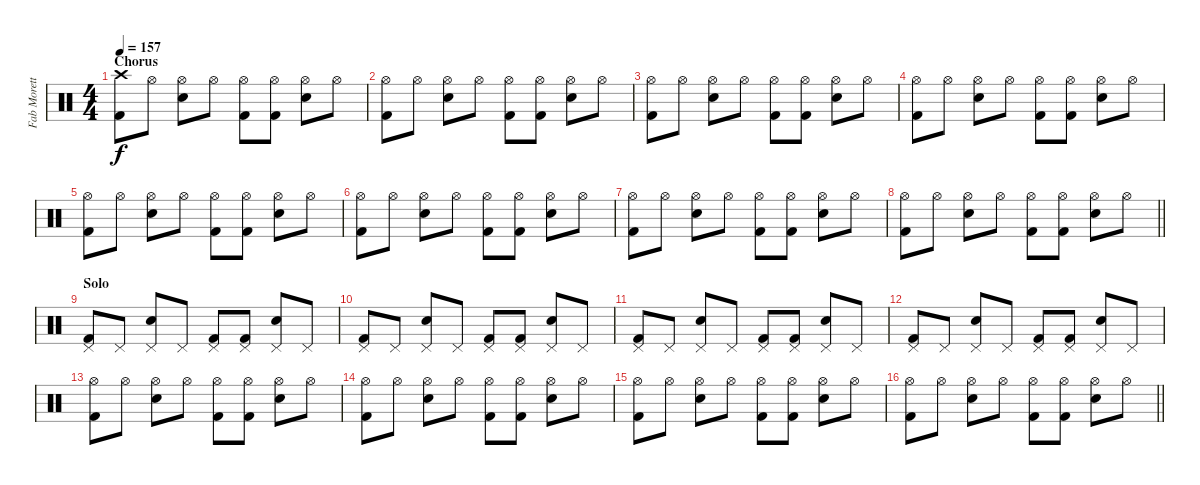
\track ("Fab Moretti - Drums" "Fab Morett") {instrument percussion bank 177}
\staff {score}
\articulation defaults
\ts (4 4)
\section ("" "Chorus")
\tempo 157
\clef neutral
\ks c
("Crash high (hit)" "Kick (hit) 2").8{dy f} "Hi-Hat (open)".8 ("Hi-Hat (open)" "Electric Snare (hit)").8 "Hi-Hat (open)".8 ("Hi-Hat (open)" "Kick (hit) 2").8 ("Hi-Hat (open)" "Kick (hit) 2").8 ("Hi-Hat (open)" "Electric Snare (hit)").8 "Hi-Hat (open)".8 |
("Hi-Hat (open)" "Kick (hit) 2").8 "Hi-Hat (open)".8 ("Hi-Hat (open)" "Electric Snare (hit)").8 "Hi-Hat (open)".8 ("Hi-Hat (open)" "Kick (hit) 2").8 ("Hi-Hat (open)" "Kick (hit) 2").8 ("Hi-Hat (open)" "Electric Snare (hit)").8 "Hi-Hat (open)".8 |
("Hi-Hat (open)" "Kick (hit) 2").8 "Hi-Hat (open)".8 ("Hi-Hat (open)" "Electric Snare (hit)").8 "Hi-Hat (open)".8 ("Hi-Hat (open)" "Kick (hit) 2").8 ("Hi-Hat (open)" "Kick (hit) 2").8 ("Hi-Hat (open)" "Electric Snare (hit)").8 "Hi-Hat (open)".8 |
("Hi-Hat (open)" "Kick (hit) 2").8 "Hi-Hat (open)".8 ("Hi-Hat (open)" "Electric Snare (hit)").8 "Hi-Hat (open)".8 ("Hi-Hat (open)" "Kick (hit) 2").8 ("Hi-Hat (open)" "Kick (hit) 2").8 ("Hi-Hat (open)" "Electric Snare (hit)").8 "Hi-Hat (open)".8 |
("Hi-Hat (open)" "Kick (hit) 2").8 "Hi-Hat (open)".8 ("Hi-Hat (open)" "Electric Snare (hit)").8 "Hi-Hat (open)".8 ("Hi-Hat (open)" "Kick (hit) 2").8 ("Hi-Hat (open)" "Kick (hit) 2").8 ("Hi-Hat (open)" "Electric Snare (hit)").8 "Hi-Hat (open)".8 |
("Hi-Hat (open)" "Kick (hit) 2").8 "Hi-Hat (open)".8 ("Hi-Hat (open)" "Electric Snare (hit)").8 "Hi-Hat (open)".8 ("Hi-Hat (open)" "Kick (hit) 2").8 ("Hi-Hat (open)" "Kick (hit) 2").8 ("Hi-Hat (open)" "Electric Snare (hit)").8 "Hi-Hat (open)".8 |
("Hi-Hat (open)" "Kick (hit) 2").8 "Hi-Hat (open)".8 ("Hi-Hat (open)" "Electric Snare (hit)").8 "Hi-Hat (open)".8 ("Hi-Hat (open)" "Kick (hit) 2").8 ("Hi-Hat (open)" "Kick (hit) 2").8 ("Hi-Hat (open)" "Electric Snare (hit)").8 "Hi-Hat (open)".8 |
\barLineRight lightlight
("Hi-Hat (open)" "Kick (hit) 2").8 "Hi-Hat (open)".8 ("Hi-Hat (open)" "Electric Snare (hit)").8 "Hi-Hat (open)".8 ("Hi-Hat (open)" "Kick (hit) 2").8 ("Hi-Hat (open)" "Kick (hit) 2").8 ("Hi-Hat (open)" "Electric Snare (hit)").8 "Hi-Hat (open)".8 |
\section ("" "Solo")
("Pedal Hi-Hat (hit)" "Kick (hit) 2").8 "Pedal Hi-Hat (hit)".8 ("Pedal Hi-Hat (hit)" "Electric Snare (hit)").8 "Pedal Hi-Hat (hit)".8 ("Pedal Hi-Hat (hit)" "Kick (hit) 2").8 ("Pedal Hi-Hat (hit)" "Kick (hit) 2").8 ("Pedal Hi-Hat (hit)" "Electric Snare (hit)").8 "Pedal Hi-Hat (hit)".8 |
("Pedal Hi-Hat (hit)" "Kick (hit) 2").8 "Pedal Hi-Hat (hit)".8 ("Pedal Hi-Hat (hit)" "Electric Snare (hit)").8 "Pedal Hi-Hat (hit)".8 ("Pedal Hi-Hat (hit)" "Kick (hit) 2").8 ("Pedal Hi-Hat (hit)" "Kick (hit) 2").8 ("Pedal Hi-Hat (hit)" "Electric Snare (hit)").8 "Pedal Hi-Hat (hit)".8 |
("Pedal Hi-Hat (hit)" "Kick (hit) 2").8 "Pedal Hi-Hat (hit)".8 ("Pedal Hi-Hat (hit)" "Electric Snare (hit)").8 "Pedal Hi-Hat (hit)".8 ("Pedal Hi-Hat (hit)" "Kick (hit) 2").8 ("Pedal Hi-Hat (hit)" "Kick (hit) 2").8 ("Pedal Hi-Hat (hit)" "Electric Snare (hit)").8 "Pedal Hi-Hat (hit)".8 |
("Pedal Hi-Hat (hit)" "Kick (hit) 2").8 "Pedal Hi-Hat (hit)".8 ("Pedal Hi-Hat (hit)" "Electric Snare (hit)").8 "Pedal Hi-Hat (hit)".8 ("Pedal Hi-Hat (hit)" "Kick (hit) 2").8 ("Pedal Hi-Hat (hit)" "Kick (hit) 2").8 ("Pedal Hi-Hat (hit)" "Electric Snare (hit)").8 "Pedal Hi-Hat (hit)".8 |
("Hi-Hat (open)" "Kick (hit) 2").8 "Hi-Hat (open)".8 ("Hi-Hat (open)" "Electric Snare (hit)").8 "Hi-Hat (open)".8 ("Hi-Hat (open)" "Kick (hit) 2").8 ("Hi-Hat (open)" "Kick (hit) 2").8 ("Hi-Hat (open)" "Electric Snare (hit)").8 "Hi-Hat (open)".8 |
("Hi-Hat (open)" "Kick (hit) 2").8 "Hi-Hat (open)".8 ("Hi-Hat (open)" "Electric Snare (hit)").8 "Hi-Hat (open)".8 ("Hi-Hat (open)" "Kick (hit) 2").8 ("Hi-Hat (open)" "Kick (hit) 2").8 ("Hi-Hat (open)" "Electric Snare (hit)").8 "Hi-Hat (open)".8 |
("Hi-Hat (open)" "Kick (hit) 2").8 "Hi-Hat (open)".8 ("Hi-Hat (open)" "Electric Snare (hit)").8 "Hi-Hat (open)".8 ("Hi-Hat (open)" "Kick (hit) 2").8 ("Hi-Hat (open)" "Kick (hit) 2").8 ("Hi-Hat (open)" "Electric Snare (hit)").8 "Hi-Hat (open)".8 |
\barLineRight lightlight
("Hi-Hat (open)" "Kick (hit) 2").8 "Hi-Hat (open)".8 ("Hi-Hat (open)" "Electric Snare (hit)").8 "Hi-Hat (open)".8 ("Hi-Hat (open)" "Kick (hit) 2").8 ("Hi-Hat (open)" "Kick (hit) 2").8 ("Hi-Hat (open)" "Electric Snare (hit)").8 "Hi-Hat (open)".8
